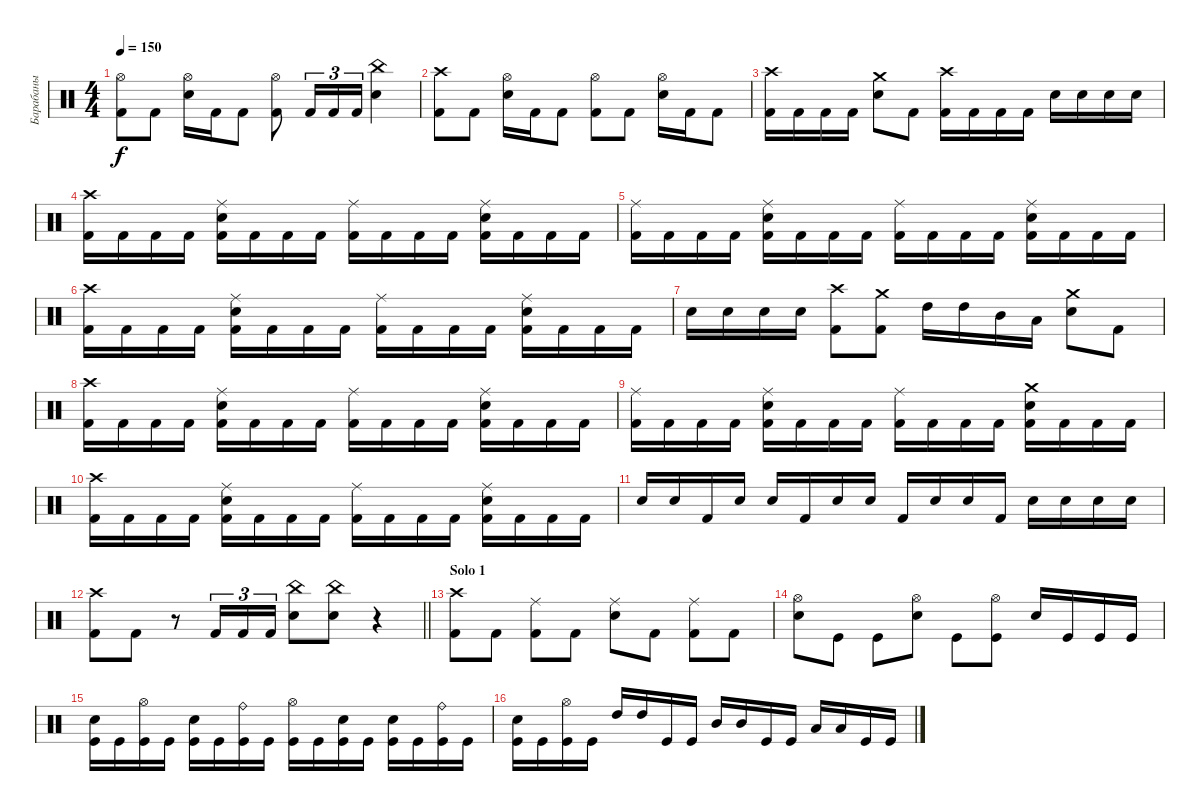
\track ("Барабаны" "Барабаны") {instrument percussion}
\staff {score}
\articulation defaults
\ts (4 4)
\tempo 150
\clef neutral
\ks c
("Kick (hit) 2" "Hi-Hat (open)").8{dy f} "Kick (hit) 2".8 ("Electric Snare (hit)" "Hi-Hat (open)").16 "Kick (hit) 2".16 "Kick (hit) 2".8 ("Kick (hit) 2" "Hi-Hat (open)").8 "Kick (hit) 2".16{tu (3 2)} "Kick (hit) 2".16{tu (3 2)} "Kick (hit) 2".16{tu (3 2)} ("Electric Snare (hit)" "China (hit)").4 |
("Kick (hit) 2" "Crash high (hit)").8 "Kick (hit) 2".8 ("Electric Snare (hit)" "Hi-Hat (open)").16 "Kick (hit) 2".16 "Kick (hit) 2".8 ("Kick (hit) 2" "Hi-Hat (open)").8 "Kick (hit) 2".8 ("Electric Snare (hit)" "Hi-Hat (open)").16 "Kick (hit) 2".16 "Kick (hit) 2".8 |
("Kick (hit) 2" "Crash high (hit)").16 "Kick (hit) 2".16 "Kick (hit) 2".16 "Kick (hit) 2".16 ("Electric Snare (hit)" "Crash medium (hit)").8 "Kick (hit) 2".8 ("Kick (hit) 2" "Crash high (hit)").16 "Kick (hit) 2".16 "Kick (hit) 2".16 "Kick (hit) 2".16 "Electric Snare (hit)".16 "Electric Snare (hit)".16 "Electric Snare (hit)".16 "Electric Snare (hit)".16 |
("Kick (hit) 2" "Crash high (hit)").16 "Kick (hit) 2".16 "Kick (hit) 2".16 "Kick (hit) 2".16 ("Electric Snare (hit)" "Kick (hit) 2" "Ride (middle)").16 "Kick (hit) 2".16 "Kick (hit) 2".16 "Kick (hit) 2".16 ("Kick (hit) 2" "Ride (middle)").16 "Kick (hit) 2".16 "Kick (hit) 2".16 "Kick (hit) 2".16 ("Electric Snare (hit)" "Kick (hit) 2" "Ride (middle)").16 "Kick (hit) 2".16 "Kick (hit) 2".16 "Kick (hit) 2".16 |
("Kick (hit) 2" "Ride (middle)").16 "Kick (hit) 2".16 "Kick (hit) 2".16 "Kick (hit) 2".16 ("Electric Snare (hit)" "Kick (hit) 2" "Ride (middle)").16 "Kick (hit) 2".16 "Kick (hit) 2".16 "Kick (hit) 2".16 ("Kick (hit) 2" "Ride (middle)").16 "Kick (hit) 2".16 "Kick (hit) 2".16 "Kick (hit) 2".16 ("Electric Snare (hit)" "Kick (hit) 2" "Ride (middle)").16 "Kick (hit) 2".16 "Kick (hit) 2".16 "Kick (hit) 2".16 |
("Kick (hit) 2" "Crash high (hit)").16 "Kick (hit) 2".16 "Kick (hit) 2".16 "Kick (hit) 2".16 ("Electric Snare (hit)" "Kick (hit) 2" "Ride (middle)").16 "Kick (hit) 2".16 "Kick (hit) 2".16 "Kick (hit) 2".16 ("Kick (hit) 2" "Ride (middle)").16 "Kick (hit) 2".16 "Kick (hit) 2".16 "Kick (hit) 2".16 ("Electric Snare (hit)" "Kick (hit) 2" "Ride (middle)").16 "Kick (hit) 2".16 "Kick (hit) 2".16 "Kick (hit) 2".16 |
"Electric Snare (hit)".16 "Electric Snare (hit)".16 "Electric Snare (hit)".16 "Electric Snare (hit)".16 ("Kick (hit) 2" "Crash high (hit)").8 ("Kick (hit) 2" "Crash medium (hit)").8 "High Tom (hit)".16 "High Tom (hit)".16 "Mid Tom (hit)".16 "Low Tom (hit)".16 ("Electric Snare (hit)" "Crash medium (hit)").8 "Kick (hit) 2".8 |
("Kick (hit) 2" "Crash high (hit)").16 "Kick (hit) 2".16 "Kick (hit) 2".16 "Kick (hit) 2".16 ("Electric Snare (hit)" "Kick (hit) 2" "Ride (middle)").16 "Kick (hit) 2".16 "Kick (hit) 2".16 "Kick (hit) 2".16 ("Kick (hit) 2" "Ride (middle)").16 "Kick (hit) 2".16 "Kick (hit) 2".16 "Kick (hit) 2".16 ("Electric Snare (hit)" "Kick (hit) 2" "Ride (middle)").16 "Kick (hit) 2".16 "Kick (hit) 2".16 "Kick (hit) 2".16 |
("Kick (hit) 2" "Ride (middle)").16 "Kick (hit) 2".16 "Kick (hit) 2".16 "Kick (hit) 2".16 ("Electric Snare (hit)" "Kick (hit) 2" "Ride (middle)").16 "Kick (hit) 2".16 "Kick (hit) 2".16 "Kick (hit) 2".16 ("Kick (hit) 2" "Ride (middle)").16 "Kick (hit) 2".16 "Kick (hit) 2".16 "Kick (hit) 2".16 ("Electric Snare (hit)" "Kick (hit) 2" "Crash medium (hit)").16 "Kick (hit) 2".16 "Kick (hit) 2".16 "Kick (hit) 2".16 |
("Kick (hit) 2" "Crash high (hit)").16 "Kick (hit) 2".16 "Kick (hit) 2".16 "Kick (hit) 2".16 ("Electric Snare (hit)" "Kick (hit) 2" "Ride (middle)").16 "Kick (hit) 2".16 "Kick (hit) 2".16 "Kick (hit) 2".16 ("Kick (hit) 2" "Ride (middle)").16 "Kick (hit) 2".16 "Kick (hit) 2".16 "Kick (hit) 2".16 ("Electric Snare (hit)" "Kick (hit) 2" "Ride (middle)").16 "Kick (hit) 2".16 "Kick (hit) 2".16 "Kick (hit) 2".16 |
"Electric Snare (hit)".16 "Electric Snare (hit)".16 "Kick (hit) 2".16 "Electric Snare (hit)".16 "Electric Snare (hit)".16 "Kick (hit) 2".16 "Electric Snare (hit)".16 "Electric Snare (hit)".16 "Kick (hit) 2".16 "Electric Snare (hit)".16 "Electric Snare (hit)".16 "Kick (hit) 2".16 "Electric Snare (hit)".16 "Electric Snare (hit)".16 "Electric Snare (hit)".16 "Electric Snare (hit)".16 |
\barLineRight lightlight
("Kick (hit) 2" "Crash high (hit)").8 "Kick (hit) 2".8 r.8 "Kick (hit) 2".16{tu (3 2)} "Kick (hit) 2".16{tu (3 2)} "Kick (hit) 2".16{tu (3 2)} ("Electric Snare (hit)" "China (hit)").8 ("Electric Snare (hit)" "China (hit)").8 r.4 |
\section ("" "Solo 1")
("Kick (hit) 2" "Crash high (hit)").8 "Kick (hit) 2".8 ("Kick (hit) 2" "Ride (middle)").8 "Kick (hit) 2".8 ("Electric Snare (hit)" "Ride (middle)").8 "Kick (hit) 2".8 ("Kick (hit) 2" "Ride (middle)").8 "Kick (hit) 2".8 |
("Hi-Hat (open)" "Snare (hit) 2").8 "Kick (hit)".8 "Kick (hit)".8 ("Hi-Hat (open)" "Snare (hit) 2").8 "Kick (hit)".8 ("Hi-Hat (open)" "Kick (hit)").8 "Snare (hit) 2".16 "Kick (hit)".16 "Kick (hit)".16 "Kick (hit)".16 |
("Snare (hit) 2" "Kick (hit)").16 "Kick (hit)".16 ("Hi-Hat (open)" "Kick (hit)").16 "Kick (hit)".16 ("Snare (hit) 2" "Kick (hit)").16 "Kick (hit)".16 ("Ride (bell)" "Kick (hit)").16 "Kick (hit)".16 ("Hi-Hat (open)" "Kick (hit)").16 "Kick (hit)".16 ("Snare (hit) 2" "Kick (hit)").16 "Kick (hit)".16 ("Snare (hit) 2" "Kick (hit)").16 "Kick (hit)".16 ("Ride (bell)" "Kick (hit)").16 "Kick (hit)".16 |
("Snare (hit) 2" "Kick (hit)").16 "Kick (hit)".16 ("Hi-Hat (open)" "Kick (hit)").16 "Kick (hit)".16 "High Tom (hit)".16 "High Tom (hit)".16 "Kick (hit)".16 "Kick (hit)".16 "Mid Tom (hit)".16 "Mid Tom (hit)".16 "Kick (hit)".16 "Kick (hit)".16 "Low Tom (hit)".16 "Low Tom (hit)".16 "Kick (hit)".16 "Kick (hit)".16
